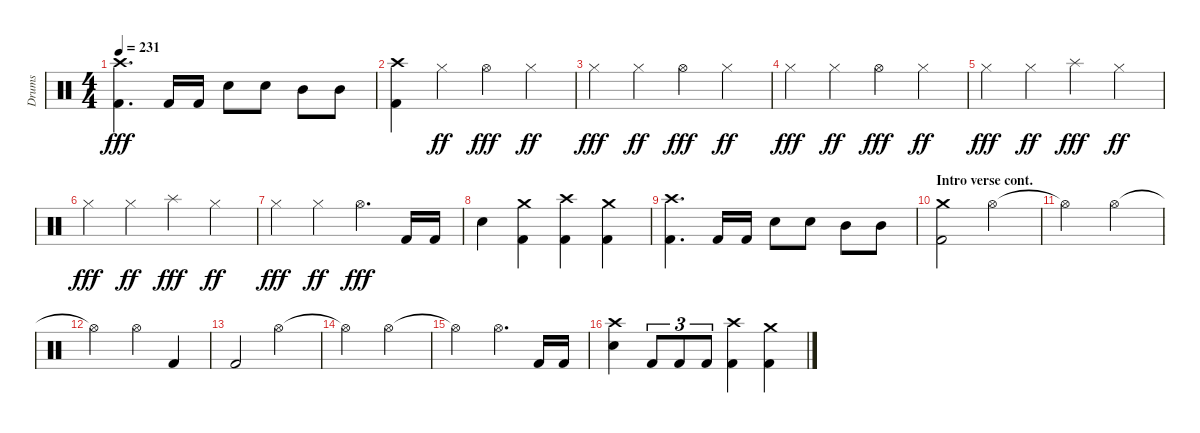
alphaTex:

\track ("Drums" "Drums") {instrument percussion}
\staff {score}
\articulation defaults
\ts (4 4)
\tempo 231
\clef neutral
\ks aminor
("Kick (hit) 2" "Crash high (hit)").4{d dy fff} "Kick (hit) 2".16 "Kick (hit) 2".16 "Snare (hit) 2".8 "Snare (hit) 2".8 "Mid Tom (hit)".8 "Mid Tom (hit)".8 |
("Kick (hit) 2" "Crash high (hit)").4 "Hi-Hat (closed)".4{dy ff} "Hi-Hat (open)".4{dy fff} "Hi-Hat (closed)".4{dy ff} |
"Hi-Hat (closed)".4{dy fff} "Hi-Hat (closed)".4{dy ff} "Hi-Hat (open)".4{dy fff} "Hi-Hat (closed)".4{dy ff} |
"Hi-Hat (closed)".4{dy fff} "Hi-Hat (closed)".4{dy ff} "Hi-Hat (open)".4{dy fff} "Hi-Hat (closed)".4{dy ff} |
"Hi-Hat (closed)".4{dy fff} "Hi-Hat (closed)".4{dy ff} "Splash (hit)".4{dy fff} "Hi-Hat (closed)".4{dy ff} |
"Hi-Hat (closed)".4{dy fff} "Hi-Hat (closed)".4{dy ff} "Splash (hit)".4{dy fff} "Hi-Hat (closed)".4{dy ff} |
"Hi-Hat (closed)".4{dy fff} "Hi-Hat (closed)".4{dy ff} "Hi-Hat (open)".4{d dy fff} "Kick (hit) 2".16 "Kick (hit) 2".16 |
"Snare (hit) 2".4 ("Kick (hit) 2" "Crash medium (hit)").4 ("Kick (hit) 2" "Crash high (hit)").4 ("Kick (hit) 2" "Crash medium (hit)").4 |
("Kick (hit) 2" "Crash high (hit)").4{d} "Kick (hit) 2".16 "Kick (hit) 2".16 "Snare (hit) 2".8 "Snare (hit) 2".8 "Mid Tom (hit)".8 "Mid Tom (hit)".8 |
\section ("" "Intro verse cont.")
("Kick (hit) 2" "Crash medium (hit)").2 "Hi-Hat (open)".2 |
"Hi-Hat (open)"{t}.2 "Hi-Hat (open)".2 |
"Hi-Hat (open)"{t}.2 "Hi-Hat (open)".4 "Kick (hit) 2".4 |
"Kick (hit) 2".2 "Hi-Hat (open)".2 |
"Hi-Hat (open)"{t}.2 "Hi-Hat (open)".2 |
"Hi-Hat (open)"{t}.2 "Hi-Hat (open)".4{d} "Kick (hit) 2".16 "Kick (hit) 2".16 |
("Snare (hit) 2" "Crash high (hit)").4 "Kick (hit) 2".8{tu (3 2)} "Kick (hit) 2".8{tu (3 2)} "Kick (hit) 2".8{tu (3 2)} ("Kick (hit) 2" "Crash high (hit)").4 ("Kick (hit) 2" "Crash medium (hit)").4
